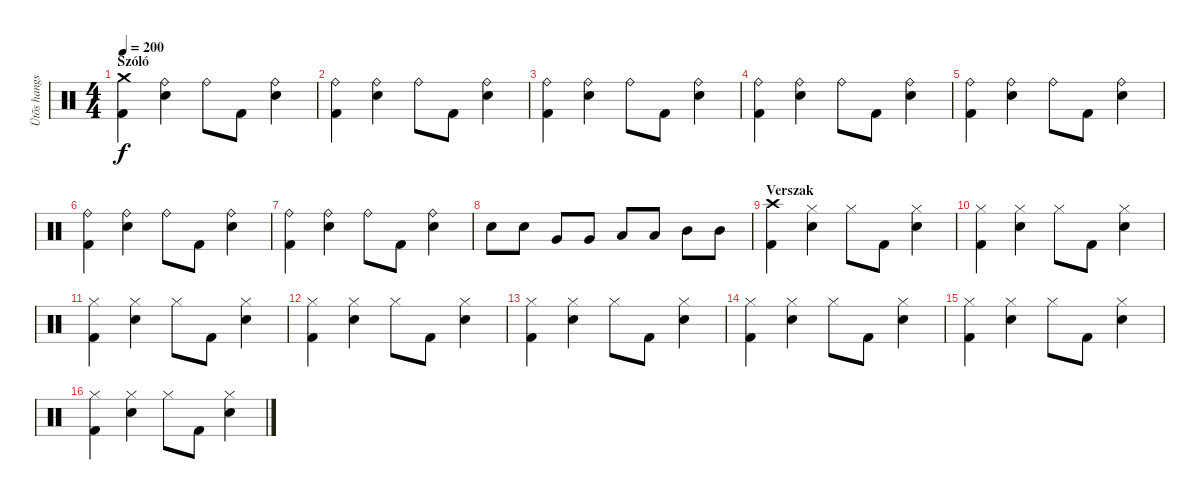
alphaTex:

\track ("Ütõs hangszer" "Ütõs hangs") {instrument percussion}
\staff {score}
\articulation defaults
\ts (4 4)
\section ("" "Szóló")
\tempo 200
\clef neutral
\ks c
("Crash medium (hit)" "Kick (hit) 2").4{dy f} ("Ride (bell)" "Snare (hit) 2").4 "Ride (bell)".8 "Kick (hit) 2".8 ("Ride (bell)" "Snare (hit) 2").4 |
("Ride (bell)" "Kick (hit) 2").4 ("Ride (bell)" "Snare (hit) 2").4 "Ride (bell)".8 "Kick (hit) 2".8 ("Ride (bell)" "Snare (hit) 2").4 |
("Ride (bell)" "Kick (hit) 2").4 ("Ride (bell)" "Snare (hit) 2").4 "Ride (bell)".8 "Kick (hit) 2".8 ("Ride (bell)" "Snare (hit) 2").4 |
("Ride (bell)" "Kick (hit) 2").4 ("Ride (bell)" "Snare (hit) 2").4 "Ride (bell)".8 "Kick (hit) 2".8 ("Ride (bell)" "Snare (hit) 2").4 |
("Ride (bell)" "Kick (hit) 2").4 ("Ride (bell)" "Snare (hit) 2").4 "Ride (bell)".8 "Kick (hit) 2".8 ("Ride (bell)" "Snare (hit) 2").4 |
("Ride (bell)" "Kick (hit) 2").4 ("Ride (bell)" "Snare (hit) 2").4 "Ride (bell)".8 "Kick (hit) 2".8 ("Ride (bell)" "Snare (hit) 2").4 |
("Ride (bell)" "Kick (hit) 2").4 ("Ride (bell)" "Snare (hit) 2").4 "Ride (bell)".8 "Kick (hit) 2".8 ("Ride (bell)" "Snare (hit) 2").4 |
"Snare (hit) 2".8 "Snare (hit) 2".8 "Very Low Tom (hit)".8 "Very Low Tom (hit)".8 "Low Tom (hit)".8 "Low Tom (hit)".8 "Mid Tom (hit)".8 "Mid Tom (hit)".8 |
\section ("" "Verszak")
("Crash high (hit)" "Kick (hit) 2").4 ("Hi-Hat (closed)" "Snare (hit) 2").4 "Hi-Hat (closed)".8 "Kick (hit) 2".8 ("Hi-Hat (closed)" "Snare (hit) 2").4 |
("Hi-Hat (closed)" "Kick (hit) 2").4 ("Hi-Hat (closed)" "Snare (hit) 2").4 "Hi-Hat (closed)".8 "Kick (hit) 2".8 ("Hi-Hat (closed)" "Snare (hit) 2").4 |
("Hi-Hat (closed)" "Kick (hit) 2").4 ("Hi-Hat (closed)" "Snare (hit) 2").4 "Hi-Hat (closed)".8 "Kick (hit) 2".8 ("Hi-Hat (closed)" "Snare (hit) 2").4 |
("Hi-Hat (closed)" "Kick (hit) 2").4 ("Hi-Hat (closed)" "Snare (hit) 2").4 "Hi-Hat (closed)".8 "Kick (hit) 2".8 ("Hi-Hat (closed)" "Snare (hit) 2").4 |
("Hi-Hat (closed)" "Kick (hit) 2").4 ("Hi-Hat (closed)" "Snare (hit) 2").4 "Hi-Hat (closed)".8 "Kick (hit) 2".8 ("Hi-Hat (closed)" "Snare (hit) 2").4 |
("Hi-Hat (closed)" "Kick (hit) 2").4 ("Hi-Hat (closed)" "Snare (hit) 2").4 "Hi-Hat (closed)".8 "Kick (hit) 2".8 ("Hi-Hat (closed)" "Snare (hit) 2").4 |
("Hi-Hat (closed)" "Kick (hit) 2").4 ("Hi-Hat (closed)" "Snare (hit) 2").4 "Hi-Hat (closed)".8 "Kick (hit) 2".8 ("Hi-Hat (closed)" "Snare (hit) 2").4 |
("Hi-Hat (closed)" "Kick (hit) 2").4 ("Hi-Hat (closed)" "Snare (hit) 2").4 "Hi-Hat (closed)".8 "Kick (hit) 2".8 ("Hi-Hat (closed)" "Snare (hit) 2").4
